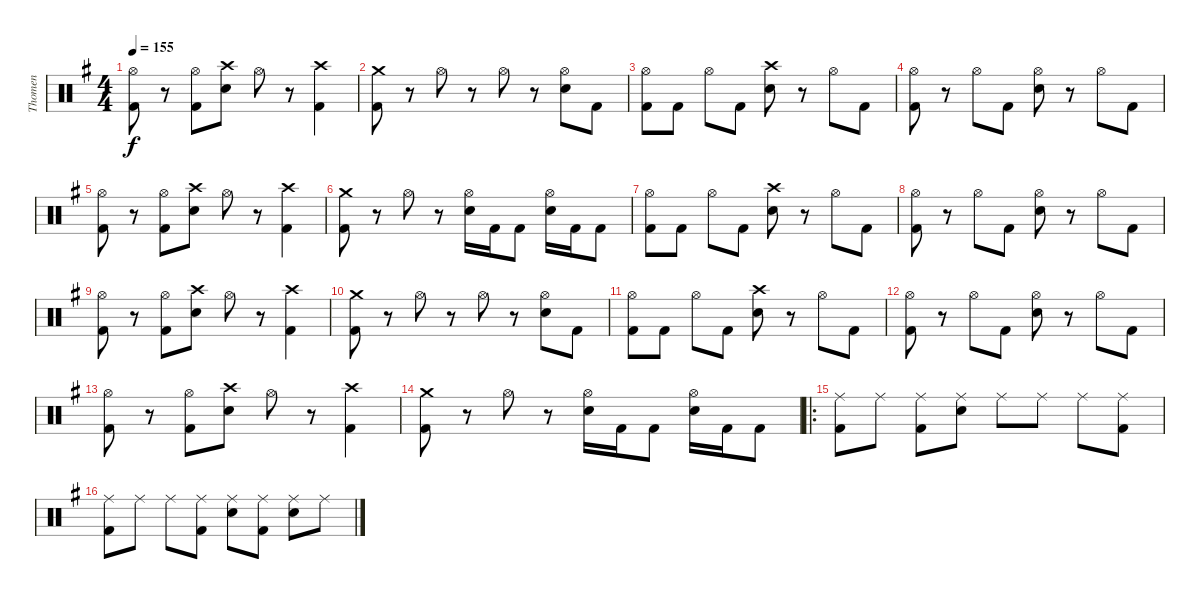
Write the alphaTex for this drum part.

\track ("Thomen" "Thomen") {instrument percussion}
\staff {score}
\articulation defaults
\ts (4 4)
\tempo 155
\clef neutral
\ks g
("Hi-Hat (open)" "Kick (hit) 2").8{dy f} r.8 ("Hi-Hat (open)" "Kick (hit) 2").8 ("Crash high (hit)" "Electric Snare (hit)").8 "Hi-Hat (open)".8 r.8 ("Crash high (hit)" "Kick (hit) 2").4 |
("Crash medium (hit)" "Kick (hit) 2").8 r.8 "Hi-Hat (open)".8 r.8 "Hi-Hat (open)".8 r.8 ("Hi-Hat (open)" "Electric Snare (hit)").8 "Kick (hit) 2".8 |
("Hi-Hat (open)" "Kick (hit) 2").8 "Kick (hit) 2".8 "Hi-Hat (open)".8 "Kick (hit) 2".8 ("Crash high (hit)" "Electric Snare (hit)").8 r.8 "Hi-Hat (open)".8 "Kick (hit) 2".8 |
("Hi-Hat (open)" "Kick (hit) 2").8 r.8 "Hi-Hat (open)".8 "Kick (hit) 2".8 ("Hi-Hat (open)" "Electric Snare (hit)").8 r.8 "Hi-Hat (open)".8 "Kick (hit) 2".8 |
("Hi-Hat (open)" "Kick (hit) 2").8 r.8 ("Hi-Hat (open)" "Kick (hit) 2").8 ("Crash high (hit)" "Electric Snare (hit)").8 "Hi-Hat (open)".8 r.8 ("Crash high (hit)" "Kick (hit) 2").4 |
("Crash medium (hit)" "Kick (hit) 2").8 r.8 "Hi-Hat (open)".8 r.8 ("Hi-Hat (open)" "Electric Snare (hit)").16 "Kick (hit) 2".16 "Kick (hit) 2".8 ("Hi-Hat (open)" "Electric Snare (hit)").16 "Kick (hit) 2".16 "Kick (hit) 2".8 |
("Hi-Hat (open)" "Kick (hit) 2").8 "Kick (hit) 2".8 "Hi-Hat (open)".8 "Kick (hit) 2".8 ("Crash high (hit)" "Electric Snare (hit)").8 r.8 "Hi-Hat (open)".8 "Kick (hit) 2".8 |
("Hi-Hat (open)" "Kick (hit) 2").8 r.8 "Hi-Hat (open)".8 "Kick (hit) 2".8 ("Hi-Hat (open)" "Electric Snare (hit)").8 r.8 "Hi-Hat (open)".8 "Kick (hit) 2".8 |
("Hi-Hat (open)" "Kick (hit) 2").8 r.8 ("Hi-Hat (open)" "Kick (hit) 2").8 ("Crash high (hit)" "Electric Snare (hit)").8 "Hi-Hat (open)".8 r.8 ("Crash high (hit)" "Kick (hit) 2").4 |
("Crash medium (hit)" "Kick (hit) 2").8 r.8 "Hi-Hat (open)".8 r.8 "Hi-Hat (open)".8 r.8 ("Hi-Hat (open)" "Electric Snare (hit)").8 "Kick (hit) 2".8 |
("Hi-Hat (open)" "Kick (hit) 2").8 "Kick (hit) 2".8 "Hi-Hat (open)".8 "Kick (hit) 2".8 ("Crash high (hit)" "Electric Snare (hit)").8 r.8 "Hi-Hat (open)".8 "Kick (hit) 2".8 |
("Hi-Hat (open)" "Kick (hit) 2").8 r.8 "Hi-Hat (open)".8 "Kick (hit) 2".8 ("Hi-Hat (open)" "Electric Snare (hit)").8 r.8 "Hi-Hat (open)".8 "Kick (hit) 2".8 |
("Hi-Hat (open)" "Kick (hit) 2").8 r.8 ("Hi-Hat (open)" "Kick (hit) 2").8 ("Crash high (hit)" "Electric Snare (hit)").8 "Hi-Hat (open)".8 r.8 ("Crash high (hit)" "Kick (hit) 2").4 |
("Crash medium (hit)" "Kick (hit) 2").8 r.8 "Hi-Hat (open)".8 r.8 ("Hi-Hat (open)" "Electric Snare (hit)").16 "Kick (hit) 2".16 "Kick (hit) 2".8 ("Hi-Hat (open)" "Electric Snare (hit)").16 "Kick (hit) 2".16 "Kick (hit) 2".8 |
\ro
("Ride (middle)" "Kick (hit) 2").8 "Ride (middle)".8 ("Ride (middle)" "Kick (hit) 2").8 ("Ride (middle)" "Electric Snare (hit)").8 "Ride (middle)".8 "Ride (middle)".8 "Ride (middle)".8 ("Ride (middle)" "Kick (hit) 2").8 |
("Ride (middle)" "Kick (hit) 2").8 "Ride (middle)".8 "Ride (middle)".8 ("Ride (middle)" "Kick (hit) 2").8 ("Ride (middle)" "Electric Snare (hit)").8 ("Ride (middle)" "Kick (hit) 2").8 ("Ride (middle)" "Electric Snare (hit)").8 "Ride (middle)".8
